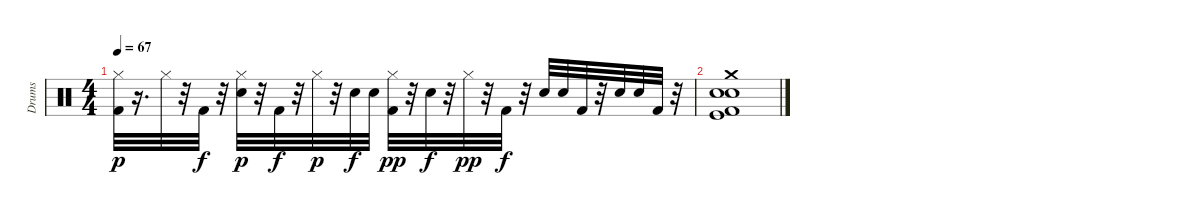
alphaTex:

\track ("Drums" "Drums") {instrument percussion}
\staff {score}
\articulation defaults
\ts (4 4)
\tempo 67
\clef neutral
\ks c
("Kick (hit) 2" "Hi-Hat (closed)").32{dy p} r.16{d} "Hi-Hat (closed)".32 r.32 "Kick (hit) 2".32{dy f} r.32 ("Snare (hit) 2" "Hi-Hat (closed)").32{dy p} r.32 "Kick (hit) 2".32{dy f} r.32 "Hi-Hat (closed)".32{dy p} r.32 "Snare (hit) 2".32{dy f} "Snare (hit) 2".32 ("Kick (hit) 2" "Hi-Hat (closed)").32{dy pp} r.32 "Snare (hit) 2".32{dy f} r.32 "Hi-Hat (closed)".32{dy pp} r.32 "Kick (hit) 2".32{dy f} r.32 "Electric Snare (hit)".32 "Snare (hit) 2".32 "Kick (hit) 2".32 r.32 "Electric Snare (hit)".32 "Snare (hit) 2".32 "Kick (hit) 2".32 r.32 |
("Kick (hit)" "Kick (hit) 2" "Snare (hit) 2" "Electric Snare (hit)" "Crash medium (hit)").1
